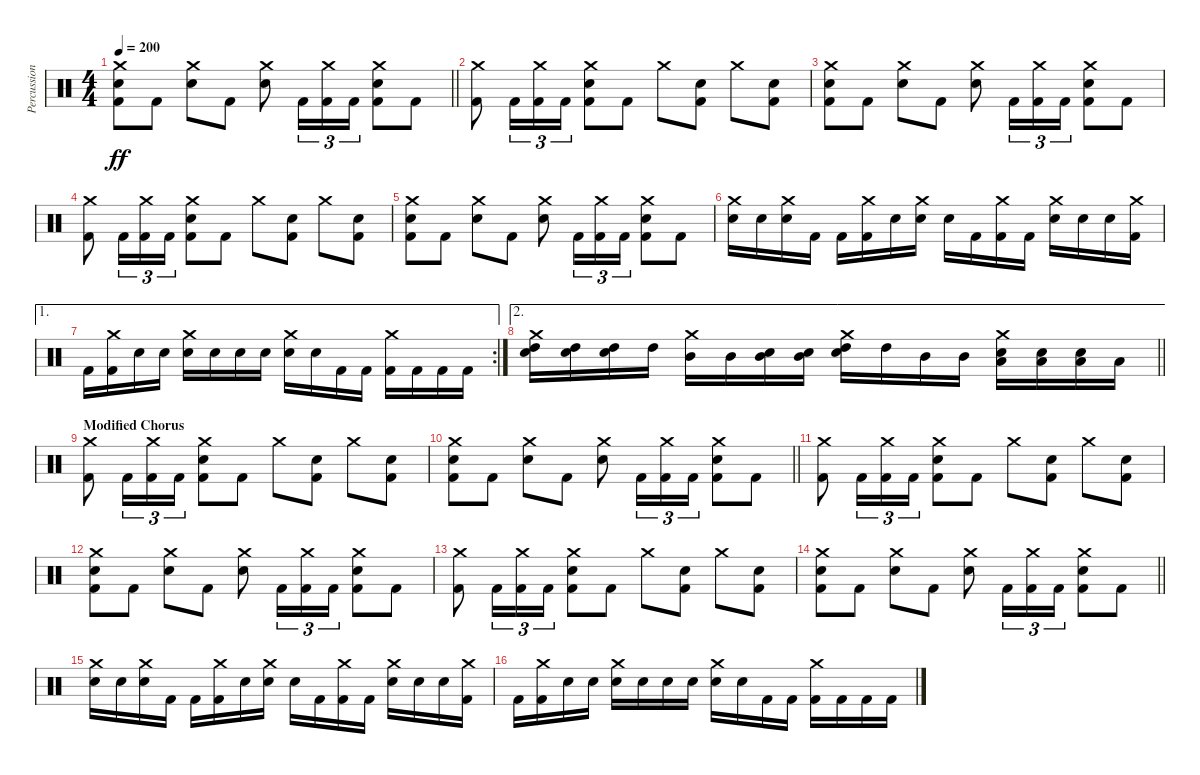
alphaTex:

\track ("Percussion" "Percussion") {instrument percussion}
\staff {score}
\articulation defaults
\ts (4 4)
\tempo 200
\clef neutral
\barLineRight lightlight
\ks c
("Crash medium (hit)" "Electric Snare (hit)" "Kick (hit) 2").8{dy ff} "Kick (hit) 2".8 ("Crash medium (hit)" "Electric Snare (hit)").8 "Kick (hit) 2".8 ("Crash medium (hit)" "Electric Snare (hit)").8 "Kick (hit) 2".16{tu (3 2)} ("Crash medium (hit)" "Kick (hit) 2").16{tu (3 2)} "Kick (hit) 2".16{tu (3 2)} ("Crash medium (hit)" "Electric Snare (hit)" "Kick (hit) 2").8 "Kick (hit) 2".8 |
("Crash medium (hit)" "Kick (hit) 2").8 "Kick (hit) 2".16{tu (3 2)} ("Crash medium (hit)" "Kick (hit) 2").16{tu (3 2)} "Kick (hit) 2".16{tu (3 2)} ("Crash medium (hit)" "Electric Snare (hit)" "Kick (hit) 2").8 "Kick (hit) 2".8 "Crash medium (hit)".8 ("Electric Snare (hit)" "Kick (hit) 2").8 "Crash medium (hit)".8 ("Electric Snare (hit)" "Kick (hit) 2").8 |
("Crash medium (hit)" "Electric Snare (hit)" "Kick (hit) 2").8 "Kick (hit) 2".8 ("Crash medium (hit)" "Electric Snare (hit)").8 "Kick (hit) 2".8 ("Crash medium (hit)" "Electric Snare (hit)").8 "Kick (hit) 2".16{tu (3 2)} ("Crash medium (hit)" "Kick (hit) 2").16{tu (3 2)} "Kick (hit) 2".16{tu (3 2)} ("Crash medium (hit)" "Electric Snare (hit)" "Kick (hit) 2").8 "Kick (hit) 2".8 |
("Crash medium (hit)" "Kick (hit) 2").8 "Kick (hit) 2".16{tu (3 2)} ("Crash medium (hit)" "Kick (hit) 2").16{tu (3 2)} "Kick (hit) 2".16{tu (3 2)} ("Crash medium (hit)" "Electric Snare (hit)" "Kick (hit) 2").8 "Kick (hit) 2".8 "Crash medium (hit)".8 ("Electric Snare (hit)" "Kick (hit) 2").8 "Crash medium (hit)".8 ("Electric Snare (hit)" "Kick (hit) 2").8 |
("Crash medium (hit)" "Electric Snare (hit)" "Kick (hit) 2").8 "Kick (hit) 2".8 ("Crash medium (hit)" "Electric Snare (hit)").8 "Kick (hit) 2".8 ("Crash medium (hit)" "Electric Snare (hit)").8 "Kick (hit) 2".16{tu (3 2)} ("Crash medium (hit)" "Kick (hit) 2").16{tu (3 2)} "Kick (hit) 2".16{tu (3 2)} ("Crash medium (hit)" "Electric Snare (hit)" "Kick (hit) 2").8 "Kick (hit) 2".8 |
("Crash medium (hit)" "Electric Snare (hit)").16 "Electric Snare (hit)".16 ("Crash medium (hit)" "Electric Snare (hit)").16 "Kick (hit) 2".16 "Kick (hit) 2".16 ("Crash medium (hit)" "Kick (hit) 2").16 "Electric Snare (hit)".16 ("Crash medium (hit)" "Electric Snare (hit)").16 "Electric Snare (hit)".16 "Kick (hit) 2".16 ("Crash medium (hit)" "Kick (hit) 2").16 "Kick (hit) 2".16 ("Crash medium (hit)" "Electric Snare (hit)").16 "Electric Snare (hit)".16 "Electric Snare (hit)".16 ("Crash medium (hit)" "Kick (hit) 2").16 |
\ae 1
\rc 2 "Kick (hit) 2".16
("Crash medium (hit)" "Kick (hit) 2").16 "Electric Snare (hit)".16 "Electric Snare (hit)".16 ("Crash medium (hit)" "Electric Snare (hit)").16 "Electric Snare (hit)".16 "Electric Snare (hit)".16 "Electric Snare (hit)".16 ("Crash medium (hit)" "Electric Snare (hit)").16 "Electric Snare (hit)".16 "Kick (hit) 2".16 "Kick (hit) 2".16 ("Crash medium (hit)" "Kick (hit) 2").16 "Kick (hit) 2".16 "Kick (hit) 2".16 "Kick (hit) 2".16 |
\ae 2
\barLineRight lightlight
("Crash medium (hit)" "High Tom (hit)" "Electric Snare (hit)").16 ("High Tom (hit)" "Electric Snare (hit)").16 ("High Tom (hit)" "Electric Snare (hit)").16 "High Tom (hit)".16 ("Crash medium (hit)" "Mid Tom (hit)").16 "Mid Tom (hit)".16 ("Mid Tom (hit)" "Electric Snare (hit)").16 ("Mid Tom (hit)" "Electric Snare (hit)").16 ("Crash medium (hit)" "High Tom (hit)" "Electric Snare (hit)").16 "High Tom (hit)".16 "Mid Tom (hit)".16 "Mid Tom (hit)".16 ("Crash medium (hit)" "Low Tom (hit)" "Electric Snare (hit)").16 ("Low Tom (hit)" "Electric Snare (hit)").16 ("Low Tom (hit)" "Electric Snare (hit)").16 "Low Tom (hit)".16 |
\section ("" "Modified Chorus")
("Crash medium (hit)" "Kick (hit) 2").8 "Kick (hit) 2".16{tu (3 2)} ("Crash medium (hit)" "Kick (hit) 2").16{tu (3 2)} "Kick (hit) 2".16{tu (3 2)} ("Crash medium (hit)" "Electric Snare (hit)" "Kick (hit) 2").8 "Kick (hit) 2".8 "Crash medium (hit)".8 ("Electric Snare (hit)" "Kick (hit) 2").8 "Crash medium (hit)".8 ("Electric Snare (hit)" "Kick (hit) 2").8 |
\barLineRight lightlight
("Crash medium (hit)" "Electric Snare (hit)" "Kick (hit) 2").8 "Kick (hit) 2".8 ("Crash medium (hit)" "Electric Snare (hit)").8 "Kick (hit) 2".8 ("Crash medium (hit)" "Electric Snare (hit)").8 "Kick (hit) 2".16{tu (3 2)} ("Crash medium (hit)" "Kick (hit) 2").16{tu (3 2)} "Kick (hit) 2".16{tu (3 2)} ("Crash medium (hit)" "Electric Snare (hit)" "Kick (hit) 2").8 "Kick (hit) 2".8 |
("Crash medium (hit)" "Kick (hit) 2").8 "Kick (hit) 2".16{tu (3 2)} ("Crash medium (hit)" "Kick (hit) 2").16{tu (3 2)} "Kick (hit) 2".16{tu (3 2)} ("Crash medium (hit)" "Electric Snare (hit)" "Kick (hit) 2").8 "Kick (hit) 2".8 "Crash medium (hit)".8 ("Electric Snare (hit)" "Kick (hit) 2").8 "Crash medium (hit)".8 ("Electric Snare (hit)" "Kick (hit) 2").8 |
("Crash medium (hit)" "Electric Snare (hit)" "Kick (hit) 2").8 "Kick (hit) 2".8 ("Crash medium (hit)" "Electric Snare (hit)").8 "Kick (hit) 2".8 ("Crash medium (hit)" "Electric Snare (hit)").8 "Kick (hit) 2".16{tu (3 2)} ("Crash medium (hit)" "Kick (hit) 2").16{tu (3 2)} "Kick (hit) 2".16{tu (3 2)} ("Crash medium (hit)" "Electric Snare (hit)" "Kick (hit) 2").8 "Kick (hit) 2".8 |
("Crash medium (hit)" "Kick (hit) 2").8 "Kick (hit) 2".16{tu (3 2)} ("Crash medium (hit)" "Kick (hit) 2").16{tu (3 2)} "Kick (hit) 2".16{tu (3 2)} ("Crash medium (hit)" "Electric Snare (hit)" "Kick (hit) 2").8 "Kick (hit) 2".8 "Crash medium (hit)".8 ("Electric Snare (hit)" "Kick (hit) 2").8 "Crash medium (hit)".8 ("Electric Snare (hit)" "Kick (hit) 2").8 |
\barLineRight lightlight
("Crash medium (hit)" "Electric Snare (hit)" "Kick (hit) 2").8 "Kick (hit) 2".8 ("Crash medium (hit)" "Electric Snare (hit)").8 "Kick (hit) 2".8 ("Crash medium (hit)" "Electric Snare (hit)").8 "Kick (hit) 2".16{tu (3 2)} ("Crash medium (hit)" "Kick (hit) 2").16{tu (3 2)} "Kick (hit) 2".16{tu (3 2)} ("Crash medium (hit)" "Electric Snare (hit)" "Kick (hit) 2").8 "Kick (hit) 2".8 |
("Crash medium (hit)" "Electric Snare (hit)").16 "Electric Snare (hit)".16 ("Crash medium (hit)" "Electric Snare (hit)").16 "Kick (hit) 2".16 "Kick (hit) 2".16 ("Crash medium (hit)" "Kick (hit) 2").16 "Electric Snare (hit)".16 ("Crash medium (hit)" "Electric Snare (hit)").16 "Electric Snare (hit)".16 "Kick (hit) 2".16 ("Crash medium (hit)" "Kick (hit) 2").16 "Kick (hit) 2".16 ("Crash medium (hit)" "Electric Snare (hit)").16 "Electric Snare (hit)".16 "Electric Snare (hit)".16 ("Crash medium (hit)" "Kick (hit) 2").16 |
"Kick (hit) 2".16 ("Crash medium (hit)" "Kick (hit) 2").16 "Electric Snare (hit)".16 "Electric Snare (hit)".16 ("Crash medium (hit)" "Electric Snare (hit)").16 "Electric Snare (hit)".16 "Electric Snare (hit)".16 "Electric Snare (hit)".16 ("Crash medium (hit)" "Electric Snare (hit)").16 "Electric Snare (hit)".16 "Kick (hit) 2".16 "Kick (hit) 2".16 ("Crash medium (hit)" "Kick (hit) 2").16 "Kick (hit) 2".16 "Kick (hit) 2".16 "Kick (hit) 2".16
